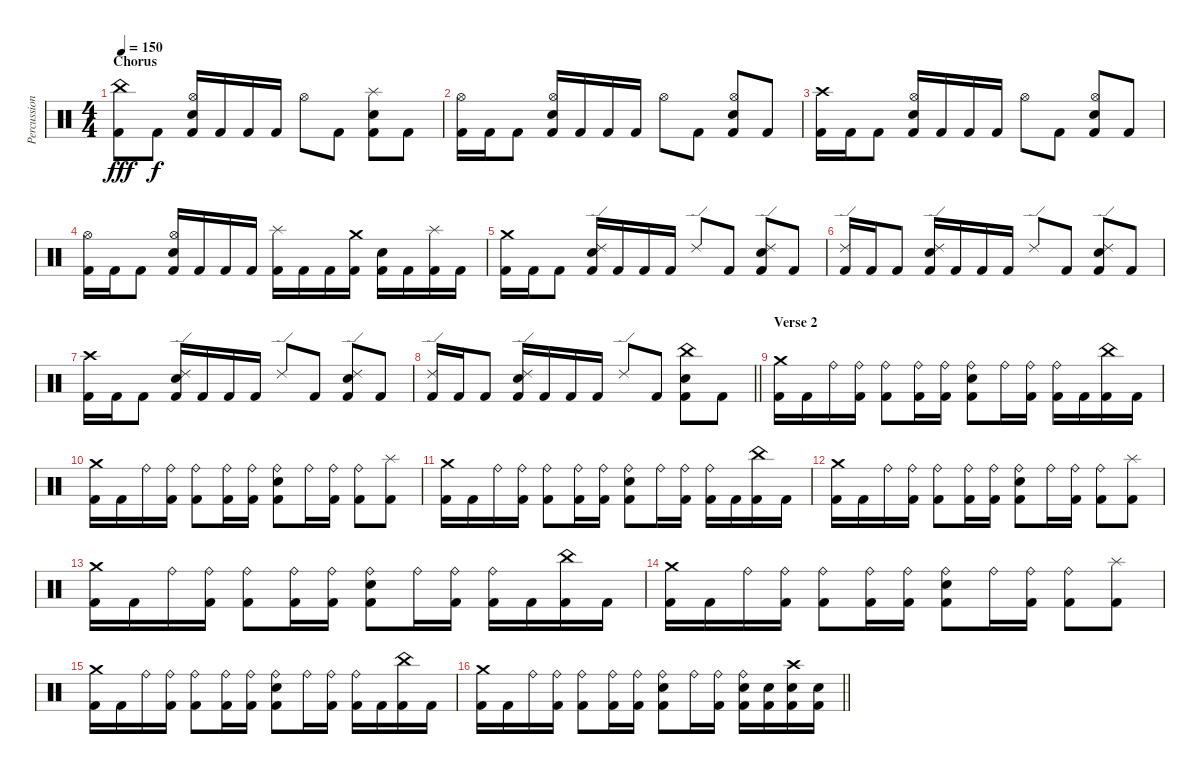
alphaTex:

\track ("Percussion" "Percussion") {instrument percussion}
\staff {score}
\articulation defaults
\ts (4 4)
\section ("" "Chorus")
\tempo 150
\clef neutral
\ks c
("China (hit)" "Kick (hit) 2").8{dy fff} "Kick (hit) 2".8{dy f} ("Hi-Hat (open)" "Electric Snare (hit)" "Kick (hit) 2").16 "Kick (hit) 2".16 "Kick (hit) 2".16 "Kick (hit) 2".16 "Hi-Hat (open)".8 "Kick (hit) 2".8 ("Splash (hit)" "Electric Snare (hit)" "Kick (hit) 2").8 "Kick (hit) 2".8 |
("Hi-Hat (open)" "Kick (hit) 2").16 "Kick (hit) 2".16 "Kick (hit) 2".8 ("Hi-Hat (open)" "Electric Snare (hit)" "Kick (hit) 2").16 "Kick (hit) 2".16 "Kick (hit) 2".16 "Kick (hit) 2".16 "Hi-Hat (open)".8 "Kick (hit) 2".8 ("Hi-Hat (open)" "Electric Snare (hit)" "Kick (hit) 2").8 "Kick (hit) 2".8 |
("Crash high (hit)" "Kick (hit) 2").16 "Kick (hit) 2".16 "Kick (hit) 2".8 ("Hi-Hat (open)" "Electric Snare (hit)" "Kick (hit) 2").16 "Kick (hit) 2".16 "Kick (hit) 2".16 "Kick (hit) 2".16 "Hi-Hat (open)".8 "Kick (hit) 2".8 ("Hi-Hat (open)" "Electric Snare (hit)" "Kick (hit) 2").8 "Kick (hit) 2".8 |
("Hi-Hat (open)" "Kick (hit) 2").16 "Kick (hit) 2".16 "Kick (hit) 2".8 ("Hi-Hat (open)" "Electric Snare (hit)" "Kick (hit) 2").16 "Kick (hit) 2".16 "Kick (hit) 2".16 "Kick (hit) 2".16 ("Splash (hit)" "Kick (hit) 2").16 "Kick (hit) 2".16 "Kick (hit) 2".16 ("Crash medium (hit)" "Kick (hit) 2").16 ("Electric Snare (hit)" "Kick (hit) 2").16 "Kick (hit) 2".16 ("Splash (hit)" "Kick (hit) 2").16 "Kick (hit) 2".16 |
("Crash medium (hit)" "Kick (hit) 2").16 "Kick (hit) 2".16 "Kick (hit) 2".8 ("Ride (edge) 2" "Electric Snare (hit)" "Kick (hit) 2").16 "Kick (hit) 2".16 "Kick (hit) 2".16 "Kick (hit) 2".16 "Ride (edge) 2".8 "Kick (hit) 2".8 ("Ride (edge) 2" "Electric Snare (hit)" "Kick (hit) 2").8 "Kick (hit) 2".8 |
("Ride (edge) 2" "Kick (hit) 2").16 "Kick (hit) 2".16 "Kick (hit) 2".8 ("Ride (edge) 2" "Electric Snare (hit)" "Kick (hit) 2").16 "Kick (hit) 2".16 "Kick (hit) 2".16 "Kick (hit) 2".16 "Ride (edge) 2".8 "Kick (hit) 2".8 ("Ride (edge) 2" "Electric Snare (hit)" "Kick (hit) 2").8 "Kick (hit) 2".8 |
("Crash high (hit)" "Kick (hit) 2").16 "Kick (hit) 2".16 "Kick (hit) 2".8 ("Ride (edge) 2" "Electric Snare (hit)" "Kick (hit) 2").16 "Kick (hit) 2".16 "Kick (hit) 2".16 "Kick (hit) 2".16 "Ride (edge) 2".8 "Kick (hit) 2".8 ("Ride (edge) 2" "Electric Snare (hit)" "Kick (hit) 2").8 "Kick (hit) 2".8 |
\barLineRight lightlight
("Ride (edge) 2" "Kick (hit) 2").16 "Kick (hit) 2".16 "Kick (hit) 2".8 ("Ride (edge) 2" "Electric Snare (hit)" "Kick (hit) 2").16 "Kick (hit) 2".16 "Kick (hit) 2".16 "Kick (hit) 2".16 "Ride (edge) 2".8 "Kick (hit) 2".8 ("China (hit)" "Electric Snare (hit)" "Kick (hit) 2").8 "Kick (hit) 2".8 |
\section ("" "Verse 2")
("Crash medium (hit)" "Kick (hit) 2").16 "Kick (hit) 2".16 "Ride (bell)".16 ("Ride (bell)" "Kick (hit) 2").16 ("Ride (bell)" "Kick (hit) 2").8 ("Ride (bell)" "Kick (hit) 2").16 ("Ride (bell)" "Kick (hit) 2").16 ("Ride (bell)" "Electric Snare (hit)" "Kick (hit) 2").8 "Ride (bell)".16 ("Ride (bell)" "Kick (hit) 2").16 ("Ride (bell)" "Kick (hit) 2").16 "Kick (hit) 2".16 ("China (hit)" "Kick (hit) 2").16 "Kick (hit) 2".16 |
("Crash medium (hit)" "Kick (hit) 2").16 "Kick (hit) 2".16 "Ride (bell)".16 ("Ride (bell)" "Kick (hit) 2").16 ("Ride (bell)" "Kick (hit) 2").8 ("Ride (bell)" "Kick (hit) 2").16 ("Ride (bell)" "Kick (hit) 2").16 ("Ride (bell)" "Electric Snare (hit)" "Kick (hit) 2").8 "Ride (bell)".16 ("Ride (bell)" "Kick (hit) 2").16 ("Ride (bell)" "Kick (hit) 2").8 ("Splash (hit)" "Kick (hit) 2").8 |
("Crash medium (hit)" "Kick (hit) 2").16 "Kick (hit) 2".16 "Ride (bell)".16 ("Ride (bell)" "Kick (hit) 2").16 ("Ride (bell)" "Kick (hit) 2").8 ("Ride (bell)" "Kick (hit) 2").16 ("Ride (bell)" "Kick (hit) 2").16 ("Ride (bell)" "Electric Snare (hit)" "Kick (hit) 2").8 "Ride (bell)".16 ("Ride (bell)" "Kick (hit) 2").16 ("Ride (bell)" "Kick (hit) 2").16 "Kick (hit) 2".16 ("China (hit)" "Kick (hit) 2").16 "Kick (hit) 2".16 |
("Crash medium (hit)" "Kick (hit) 2").16 "Kick (hit) 2".16 "Ride (bell)".16 ("Ride (bell)" "Kick (hit) 2").16 ("Ride (bell)" "Kick (hit) 2").8 ("Ride (bell)" "Kick (hit) 2").16 ("Ride (bell)" "Kick (hit) 2").16 ("Ride (bell)" "Electric Snare (hit)" "Kick (hit) 2").8 "Ride (bell)".16 ("Ride (bell)" "Kick (hit) 2").16 ("Ride (bell)" "Kick (hit) 2").8 ("Splash (hit)" "Kick (hit) 2").8 |
("Crash medium (hit)" "Kick (hit) 2").16 "Kick (hit) 2".16 "Ride (bell)".16 ("Ride (bell)" "Kick (hit) 2").16 ("Ride (bell)" "Kick (hit) 2").8 ("Ride (bell)" "Kick (hit) 2").16 ("Ride (bell)" "Kick (hit) 2").16 ("Ride (bell)" "Electric Snare (hit)" "Kick (hit) 2").8 "Ride (bell)".16 ("Ride (bell)" "Kick (hit) 2").16 ("Ride (bell)" "Kick (hit) 2").16 "Kick (hit) 2".16 ("China (hit)" "Kick (hit) 2").16 "Kick (hit) 2".16 |
("Crash medium (hit)" "Kick (hit) 2").16 "Kick (hit) 2".16 "Ride (bell)".16 ("Ride (bell)" "Kick (hit) 2").16 ("Ride (bell)" "Kick (hit) 2").8 ("Ride (bell)" "Kick (hit) 2").16 ("Ride (bell)" "Kick (hit) 2").16 ("Ride (bell)" "Electric Snare (hit)" "Kick (hit) 2").8 "Ride (bell)".16 ("Ride (bell)" "Kick (hit) 2").16 ("Ride (bell)" "Kick (hit) 2").8 ("Splash (hit)" "Kick (hit) 2").8 |
("Crash medium (hit)" "Kick (hit) 2").16 "Kick (hit) 2".16 "Ride (bell)".16 ("Ride (bell)" "Kick (hit) 2").16 ("Ride (bell)" "Kick (hit) 2").8 ("Ride (bell)" "Kick (hit) 2").16 ("Ride (bell)" "Kick (hit) 2").16 ("Ride (bell)" "Electric Snare (hit)" "Kick (hit) 2").8 "Ride (bell)".16 ("Ride (bell)" "Kick (hit) 2").16 ("Ride (bell)" "Kick (hit) 2").16 "Kick (hit) 2".16 ("China (hit)" "Kick (hit) 2").16 "Kick (hit) 2".16 |
\barLineRight lightlight
("Crash medium (hit)" "Kick (hit) 2").16 "Kick (hit) 2".16 "Ride (bell)".16 ("Ride (bell)" "Kick (hit) 2").16 ("Ride (bell)" "Kick (hit) 2").8 ("Ride (bell)" "Kick (hit) 2").16 ("Ride (bell)" "Kick (hit) 2").16 ("Ride (bell)" "Electric Snare (hit)" "Kick (hit) 2").8 "Ride (bell)".16 ("Ride (bell)" "Kick (hit) 2").16 ("Ride (bell)" "Electric Snare (hit)" "Kick (hit) 2").16 ("Electric Snare (hit)" "Kick (hit) 2").16 ("Crash high (hit)" "Electric Snare (hit)" "Kick (hit) 2").16 ("Electric Snare (hit)" "Kick (hit) 2").16
